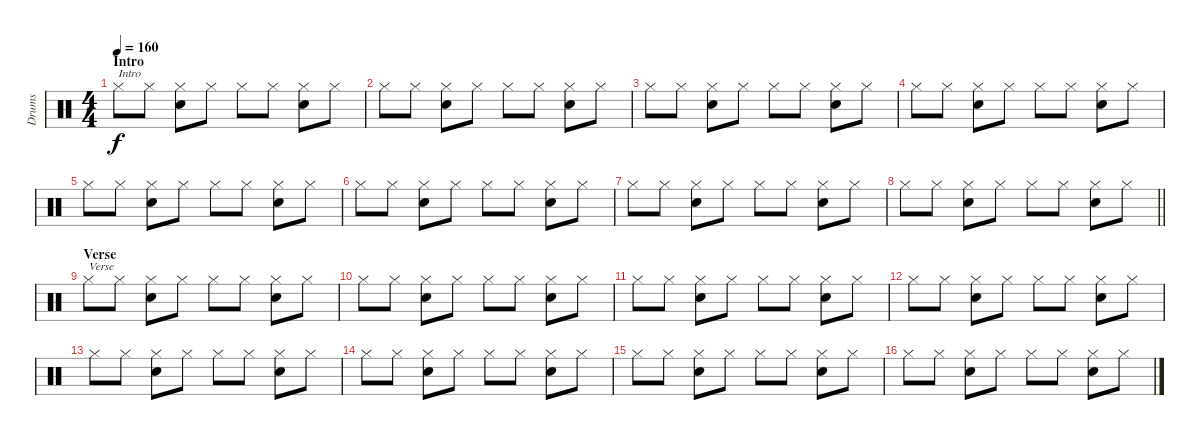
\track ("Drums" "Drums") {instrument percussion}
\staff {score}
\articulation defaults
\ts (4 4)
\section ("" "Intro")
\tempo 160
\clef neutral
\ks c "Hi-Hat (closed)".8{txt "Intro" dy f} "Hi-Hat (closed)".8
("Hi-Hat (closed)" "Electric Snare (hit)").8 "Hi-Hat (closed)".8 "Hi-Hat (closed)".8 "Hi-Hat (closed)".8 ("Hi-Hat (closed)" "Electric Snare (hit)").8 "Hi-Hat (closed)".8 |
"Hi-Hat (closed)".8 "Hi-Hat (closed)".8 ("Hi-Hat (closed)" "Electric Snare (hit)").8 "Hi-Hat (closed)".8 "Hi-Hat (closed)".8 "Hi-Hat (closed)".8 ("Hi-Hat (closed)" "Electric Snare (hit)").8 "Hi-Hat (closed)".8 |
"Hi-Hat (closed)".8 "Hi-Hat (closed)".8 ("Hi-Hat (closed)" "Electric Snare (hit)").8 "Hi-Hat (closed)".8 "Hi-Hat (closed)".8 "Hi-Hat (closed)".8 ("Hi-Hat (closed)" "Electric Snare (hit)").8 "Hi-Hat (closed)".8 |
"Hi-Hat (closed)".8 "Hi-Hat (closed)".8 ("Hi-Hat (closed)" "Electric Snare (hit)").8 "Hi-Hat (closed)".8 "Hi-Hat (closed)".8 "Hi-Hat (closed)".8 ("Hi-Hat (closed)" "Electric Snare (hit)").8 "Hi-Hat (closed)".8 |
"Hi-Hat (closed)".8 "Hi-Hat (closed)".8 ("Hi-Hat (closed)" "Electric Snare (hit)").8 "Hi-Hat (closed)".8 "Hi-Hat (closed)".8 "Hi-Hat (closed)".8 ("Hi-Hat (closed)" "Electric Snare (hit)").8 "Hi-Hat (closed)".8 |
"Hi-Hat (closed)".8 "Hi-Hat (closed)".8 ("Hi-Hat (closed)" "Electric Snare (hit)").8 "Hi-Hat (closed)".8 "Hi-Hat (closed)".8 "Hi-Hat (closed)".8 ("Hi-Hat (closed)" "Electric Snare (hit)").8 "Hi-Hat (closed)".8 |
"Hi-Hat (closed)".8 "Hi-Hat (closed)".8 ("Hi-Hat (closed)" "Electric Snare (hit)").8 "Hi-Hat (closed)".8 "Hi-Hat (closed)".8 "Hi-Hat (closed)".8 ("Hi-Hat (closed)" "Electric Snare (hit)").8 "Hi-Hat (closed)".8 |
\barLineRight lightlight "Hi-Hat (closed)".8 "Hi-Hat (closed)".8
("Hi-Hat (closed)" "Electric Snare (hit)").8 "Hi-Hat (closed)".8 "Hi-Hat (closed)".8 "Hi-Hat (closed)".8 ("Hi-Hat (closed)" "Electric Snare (hit)").8 "Hi-Hat (closed)".8 |
\section ("" "Verse")
"Hi-Hat (closed)".8{txt "Verse"} "Hi-Hat (closed)".8 ("Hi-Hat (closed)" "Electric Snare (hit)").8 "Hi-Hat (closed)".8 "Hi-Hat (closed)".8 "Hi-Hat (closed)".8 ("Hi-Hat (closed)" "Electric Snare (hit)").8 "Hi-Hat (closed)".8 |
"Hi-Hat (closed)".8 "Hi-Hat (closed)".8 ("Hi-Hat (closed)" "Electric Snare (hit)").8 "Hi-Hat (closed)".8 "Hi-Hat (closed)".8 "Hi-Hat (closed)".8 ("Hi-Hat (closed)" "Electric Snare (hit)").8 "Hi-Hat (closed)".8 |
"Hi-Hat (closed)".8 "Hi-Hat (closed)".8 ("Hi-Hat (closed)" "Electric Snare (hit)").8 "Hi-Hat (closed)".8 "Hi-Hat (closed)".8 "Hi-Hat (closed)".8 ("Hi-Hat (closed)" "Electric Snare (hit)").8 "Hi-Hat (closed)".8 |
"Hi-Hat (closed)".8 "Hi-Hat (closed)".8 ("Hi-Hat (closed)" "Electric Snare (hit)").8 "Hi-Hat (closed)".8 "Hi-Hat (closed)".8 "Hi-Hat (closed)".8 ("Hi-Hat (closed)" "Electric Snare (hit)").8 "Hi-Hat (closed)".8 |
"Hi-Hat (closed)".8 "Hi-Hat (closed)".8 ("Hi-Hat (closed)" "Electric Snare (hit)").8 "Hi-Hat (closed)".8 "Hi-Hat (closed)".8 "Hi-Hat (closed)".8 ("Hi-Hat (closed)" "Electric Snare (hit)").8 "Hi-Hat (closed)".8 |
"Hi-Hat (closed)".8 "Hi-Hat (closed)".8 ("Hi-Hat (closed)" "Electric Snare (hit)").8 "Hi-Hat (closed)".8 "Hi-Hat (closed)".8 "Hi-Hat (closed)".8 ("Hi-Hat (closed)" "Electric Snare (hit)").8 "Hi-Hat (closed)".8 |
"Hi-Hat (closed)".8 "Hi-Hat (closed)".8 ("Hi-Hat (closed)" "Electric Snare (hit)").8 "Hi-Hat (closed)".8 "Hi-Hat (closed)".8 "Hi-Hat (closed)".8 ("Hi-Hat (closed)" "Electric Snare (hit)").8 "Hi-Hat (closed)".8 |
"Hi-Hat (closed)".8 "Hi-Hat (closed)".8 ("Hi-Hat (closed)" "Electric Snare (hit)").8 "Hi-Hat (closed)".8 "Hi-Hat (closed)".8 "Hi-Hat (closed)".8 ("Hi-Hat (closed)" "Electric Snare (hit)").8 "Hi-Hat (closed)".8
